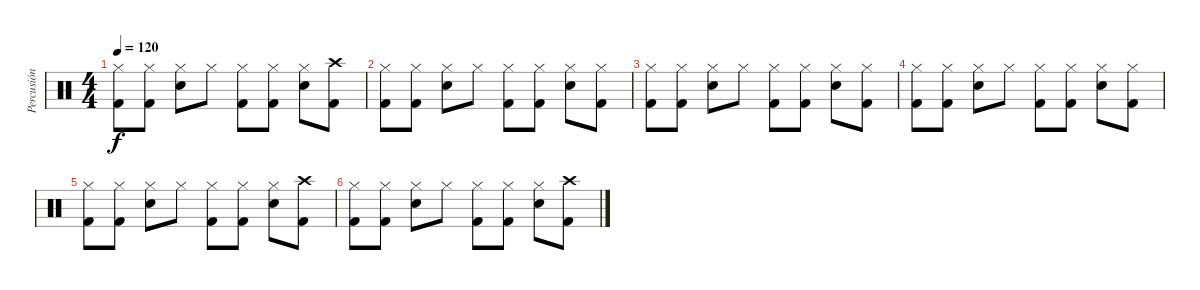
\track ("Percusión" "Percusión") {instrument percussion}
\staff {score}
\articulation defaults
\ts (4 4)
\tempo 120
\clef neutral
\ks c
("Hi-Hat (closed)" "Kick (hit) 2").8{dy f} ("Hi-Hat (closed)" "Kick (hit) 2").8 ("Hi-Hat (closed)" "Snare (hit) 2").8 "Hi-Hat (closed)".8 ("Hi-Hat (closed)" "Kick (hit) 2").8 ("Hi-Hat (closed)" "Kick (hit) 2").8 ("Hi-Hat (closed)" "Snare (hit) 2").8 ("Crash high (hit)" "Kick (hit) 2").8 |
("Hi-Hat (closed)" "Kick (hit) 2").8 ("Hi-Hat (closed)" "Kick (hit) 2").8 ("Hi-Hat (closed)" "Snare (hit) 2").8 "Hi-Hat (closed)".8 ("Hi-Hat (closed)" "Kick (hit) 2").8 ("Hi-Hat (closed)" "Kick (hit) 2").8 ("Hi-Hat (closed)" "Snare (hit) 2").8 ("Hi-Hat (closed)" "Kick (hit) 2").8 |
("Hi-Hat (closed)" "Kick (hit) 2").8 ("Hi-Hat (closed)" "Kick (hit) 2").8 ("Hi-Hat (closed)" "Snare (hit) 2").8 "Hi-Hat (closed)".8 ("Hi-Hat (closed)" "Kick (hit) 2").8 ("Hi-Hat (closed)" "Kick (hit) 2").8 ("Hi-Hat (closed)" "Snare (hit) 2").8 ("Hi-Hat (closed)" "Kick (hit) 2").8 |
("Hi-Hat (closed)" "Kick (hit) 2").8 ("Hi-Hat (closed)" "Kick (hit) 2").8 ("Hi-Hat (closed)" "Snare (hit) 2").8 "Hi-Hat (closed)".8 ("Hi-Hat (closed)" "Kick (hit) 2").8 ("Hi-Hat (closed)" "Kick (hit) 2").8 ("Hi-Hat (closed)" "Snare (hit) 2").8 ("Hi-Hat (closed)" "Kick (hit) 2").8 |
("Hi-Hat (closed)" "Kick (hit) 2").8 ("Hi-Hat (closed)" "Kick (hit) 2").8 ("Hi-Hat (closed)" "Snare (hit) 2").8 "Hi-Hat (closed)".8 ("Hi-Hat (closed)" "Kick (hit) 2").8 ("Hi-Hat (closed)" "Kick (hit) 2").8 ("Hi-Hat (closed)" "Snare (hit) 2").8 ("Crash high (hit)" "Kick (hit) 2").8 |
("Hi-Hat (closed)" "Kick (hit) 2").8 ("Hi-Hat (closed)" "Kick (hit) 2").8 ("Hi-Hat (closed)" "Snare (hit) 2").8 "Hi-Hat (closed)".8 ("Hi-Hat (closed)" "Kick (hit) 2").8 ("Hi-Hat (closed)" "Kick (hit) 2").8 ("Hi-Hat (closed)" "Snare (hit) 2").8 ("Crash high (hit)" "Kick (hit) 2").8
